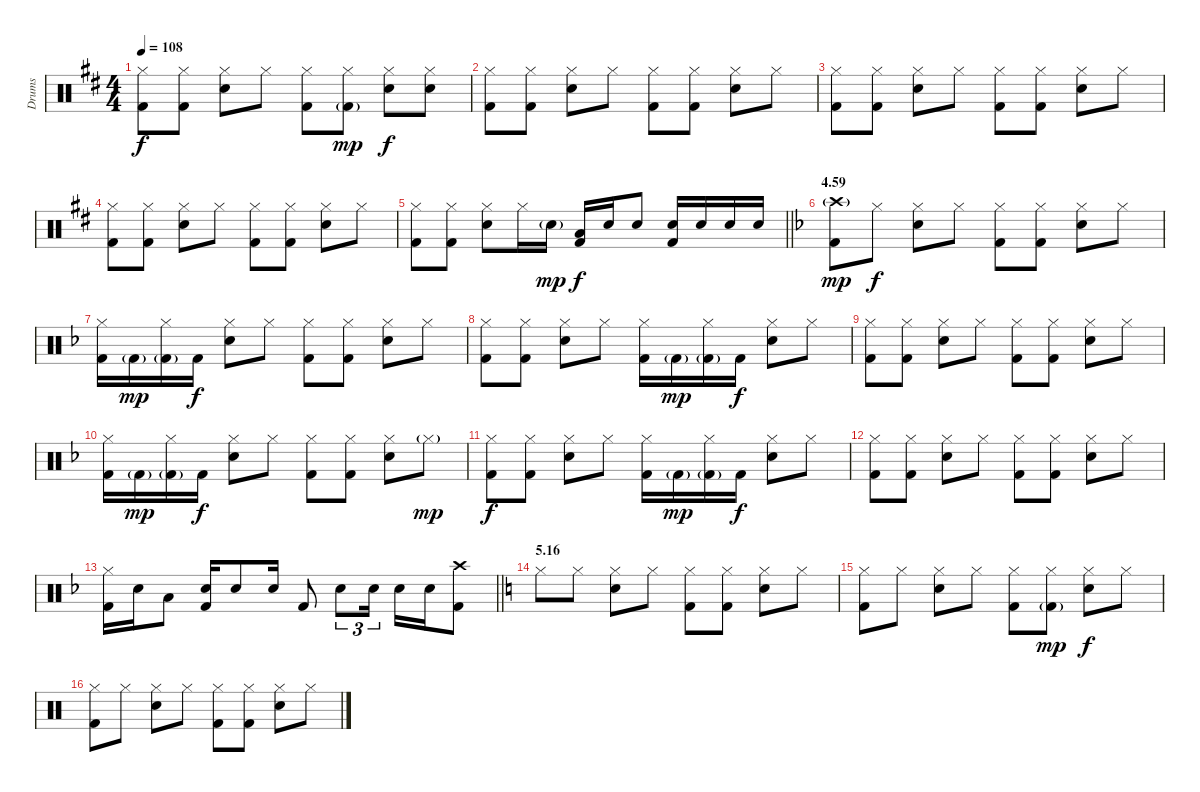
\track ("Drums" "Drums") {instrument percussion}
\staff {score}
\articulation defaults
\ts (4 4)
\tempo 108
\clef neutral
\ks d
("Hi-Hat (closed)" "Kick (hit) 2").8{dy f} ("Hi-Hat (closed)" "Kick (hit) 2").8 ("Hi-Hat (closed)" "Electric Snare (hit)").8 "Hi-Hat (closed)".8 ("Hi-Hat (closed)" "Kick (hit) 2").8 ("Hi-Hat (closed)" "Kick (hit) 2"{g}).8{dy mp} ("Hi-Hat (closed)" "Electric Snare (hit)").8{dy f} ("Hi-Hat (closed)" "Electric Snare (hit)").8 |
("Hi-Hat (closed)" "Kick (hit) 2").8 ("Hi-Hat (closed)" "Kick (hit) 2").8 ("Hi-Hat (closed)" "Electric Snare (hit)").8 "Hi-Hat (closed)".8 ("Hi-Hat (closed)" "Kick (hit) 2").8 ("Hi-Hat (closed)" "Kick (hit) 2").8 ("Hi-Hat (closed)" "Electric Snare (hit)").8 "Hi-Hat (closed)".8 |
("Hi-Hat (closed)" "Kick (hit) 2").8 ("Hi-Hat (closed)" "Kick (hit) 2").8 ("Hi-Hat (closed)" "Electric Snare (hit)").8 "Hi-Hat (closed)".8 ("Hi-Hat (closed)" "Kick (hit) 2").8 ("Hi-Hat (closed)" "Kick (hit) 2").8 ("Hi-Hat (closed)" "Electric Snare (hit)").8 "Hi-Hat (closed)".8 |
("Hi-Hat (closed)" "Kick (hit) 2").8 ("Hi-Hat (closed)" "Kick (hit) 2").8 ("Hi-Hat (closed)" "Electric Snare (hit)").8 "Hi-Hat (closed)".8 ("Hi-Hat (closed)" "Kick (hit) 2").8 ("Hi-Hat (closed)" "Kick (hit) 2").8 ("Hi-Hat (closed)" "Electric Snare (hit)").8 "Hi-Hat (closed)".8 |
\barLineRight lightlight
("Hi-Hat (closed)" "Kick (hit) 2").8 ("Hi-Hat (closed)" "Kick (hit) 2").8 ("Hi-Hat (closed)" "Electric Snare (hit)").8 "Hi-Hat (closed)".16 "Electric Snare (hit)"{g}.16{dy mp} ("Low Tom (hit)" "Kick (hit) 2").16{dy f} "Electric Snare (hit)".16 "Electric Snare (hit)".8 ("Electric Snare (hit)" "Kick (hit) 2").16 "Electric Snare (hit)".16 "Electric Snare (hit)".16 "Electric Snare (hit)".16 |
\section ("" "4.59")
\ks f
("Crash high (hit)"{g} "Kick (hit) 2").8{dy mp} "Hi-Hat (closed)".8{dy f} ("Hi-Hat (closed)" "Electric Snare (hit)").8 "Hi-Hat (closed)".8 ("Hi-Hat (closed)" "Kick (hit) 2").8 ("Hi-Hat (closed)" "Kick (hit) 2").8 ("Hi-Hat (closed)" "Electric Snare (hit)").8 "Hi-Hat (closed)".8 |
("Hi-Hat (closed)" "Kick (hit) 2").16 "Kick (hit) 2"{g}.16{dy mp} ("Hi-Hat (closed)" "Kick (hit) 2"{g}).16 "Kick (hit) 2".16{dy f} ("Hi-Hat (closed)" "Electric Snare (hit)").8 "Hi-Hat (closed)".8 ("Hi-Hat (closed)" "Kick (hit) 2").8 ("Hi-Hat (closed)" "Kick (hit) 2").8 ("Hi-Hat (closed)" "Electric Snare (hit)").8 "Hi-Hat (closed)".8 |
("Hi-Hat (closed)" "Kick (hit) 2").8 ("Hi-Hat (closed)" "Kick (hit) 2").8 ("Hi-Hat (closed)" "Electric Snare (hit)").8 "Hi-Hat (closed)".8 ("Hi-Hat (closed)" "Kick (hit) 2").16 "Kick (hit) 2"{g}.16{dy mp} ("Hi-Hat (closed)" "Kick (hit) 2"{g}).16 "Kick (hit) 2".16{dy f} ("Hi-Hat (closed)" "Electric Snare (hit)").8 "Hi-Hat (closed)".8 |
("Hi-Hat (closed)" "Kick (hit) 2").8 ("Hi-Hat (closed)" "Kick (hit) 2").8 ("Hi-Hat (closed)" "Electric Snare (hit)").8 "Hi-Hat (closed)".8 ("Hi-Hat (closed)" "Kick (hit) 2").8 ("Hi-Hat (closed)" "Kick (hit) 2").8 ("Hi-Hat (closed)" "Electric Snare (hit)").8 "Hi-Hat (closed)".8 |
("Hi-Hat (closed)" "Kick (hit) 2").16 "Kick (hit) 2"{g}.16{dy mp} ("Hi-Hat (closed)" "Kick (hit) 2"{g}).16 "Kick (hit) 2".16{dy f} ("Hi-Hat (closed)" "Electric Snare (hit)").8 "Hi-Hat (closed)".8 ("Hi-Hat (closed)" "Kick (hit) 2").8 ("Hi-Hat (closed)" "Kick (hit) 2").8 ("Hi-Hat (closed)" "Electric Snare (hit)").8 "Hi-Hat (closed)"{g}.8{dy mp} |
("Hi-Hat (closed)" "Kick (hit) 2").8{dy f} ("Hi-Hat (closed)" "Kick (hit) 2").8 ("Hi-Hat (closed)" "Electric Snare (hit)").8 "Hi-Hat (closed)".8 ("Hi-Hat (closed)" "Kick (hit) 2").16 "Kick (hit) 2"{g}.16{dy mp} ("Hi-Hat (closed)" "Kick (hit) 2"{g}).16 "Kick (hit) 2".16{dy f} ("Hi-Hat (closed)" "Electric Snare (hit)").8 "Hi-Hat (closed)".8 |
("Hi-Hat (closed)" "Kick (hit) 2").8 ("Hi-Hat (closed)" "Kick (hit) 2").8 ("Hi-Hat (closed)" "Electric Snare (hit)").8 "Hi-Hat (closed)".8 ("Hi-Hat (closed)" "Kick (hit) 2").8 ("Hi-Hat (closed)" "Kick (hit) 2").8 ("Hi-Hat (closed)" "Electric Snare (hit)").8 "Hi-Hat (closed)".8 |
\barLineRight lightlight
("Hi-Hat (closed)" "Kick (hit) 2").16 "Electric Snare (hit)".16 "Low Tom (hit)".8 ("Electric Snare (hit)" "Kick (hit) 2").16 "Electric Snare (hit)".8 "Electric Snare (hit)".16 "Kick (hit) 2".8 "Electric Snare (hit)".8{tu (3 2)} "Electric Snare (hit)".16{tu (3 2)} "Electric Snare (hit)".16 "Electric Snare (hit)".16 ("Crash high (hit)" "Kick (hit) 2").8 |
\section ("" "5.16")
\ks c "Hi-Hat (closed)".8 "Hi-Hat (closed)".8
("Hi-Hat (closed)" "Electric Snare (hit)").8 "Hi-Hat (closed)".8 ("Hi-Hat (closed)" "Kick (hit) 2").8 ("Hi-Hat (closed)" "Kick (hit) 2").8 ("Hi-Hat (closed)" "Electric Snare (hit)").8 "Hi-Hat (closed)".8 |
("Hi-Hat (closed)" "Kick (hit) 2").8 "Hi-Hat (closed)".8 ("Hi-Hat (closed)" "Electric Snare (hit)").8 "Hi-Hat (closed)".8 ("Hi-Hat (closed)" "Kick (hit) 2").8 ("Hi-Hat (closed)" "Kick (hit) 2"{g}).8{dy mp} ("Hi-Hat (closed)" "Electric Snare (hit)").8{dy f} "Hi-Hat (closed)".8 |
("Hi-Hat (closed)" "Kick (hit) 2").8 "Hi-Hat (closed)".8 ("Hi-Hat (closed)" "Electric Snare (hit)").8 "Hi-Hat (closed)".8 ("Hi-Hat (closed)" "Kick (hit) 2").8 ("Hi-Hat (closed)" "Kick (hit) 2").8 ("Hi-Hat (closed)" "Electric Snare (hit)").8 "Hi-Hat (closed)".8
